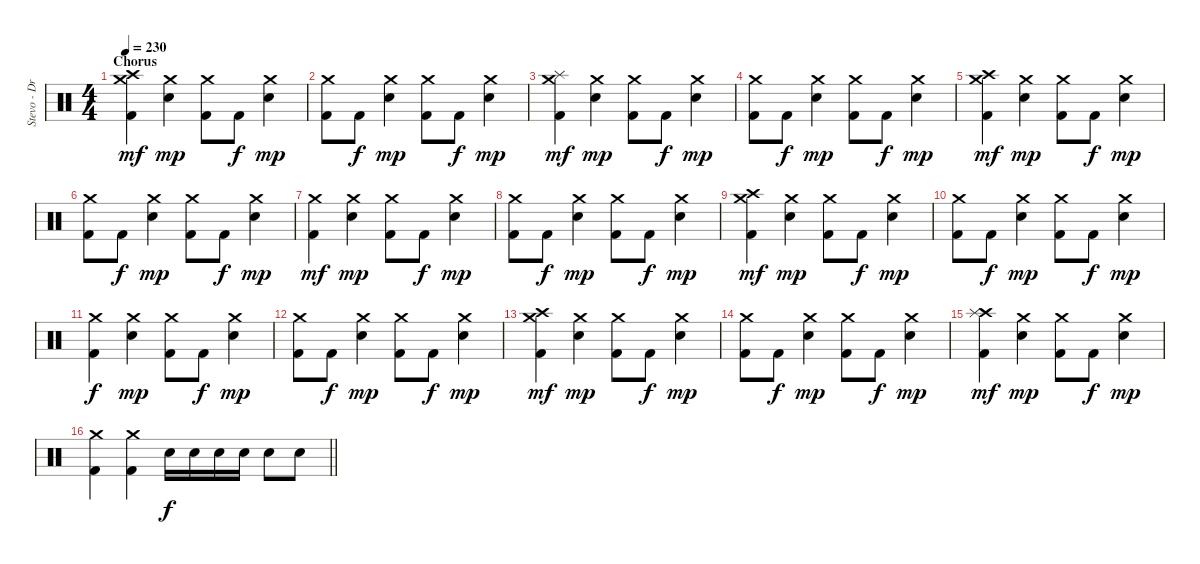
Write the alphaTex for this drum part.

\track ("Stevo - Drums" "Stevo - Dr") {instrument percussion}
\staff {score}
\articulation defaults
\ts (4 4)
\section ("" "Chorus")
\tempo 230
\clef neutral
\ks c
("Crash high (hit)" "Crash medium (hit)" "Kick (hit) 2").4{dy mf} ("Crash medium (hit)" "Electric Snare (hit)").4{dy mp} ("Crash medium (hit)" "Kick (hit) 2").8 "Kick (hit) 2".8{dy f} ("Crash medium (hit)" "Electric Snare (hit)").4{dy mp} |
("Crash medium (hit)" "Kick (hit) 2").8 "Kick (hit) 2".8{dy f} ("Crash medium (hit)" "Electric Snare (hit)").4{dy mp} ("Crash medium (hit)" "Kick (hit) 2").8 "Kick (hit) 2".8{dy f} ("Crash medium (hit)" "Electric Snare (hit)").4{dy mp} |
("Crash medium (hit)" "Splash (hit)" "Kick (hit) 2").4{dy mf} ("Crash medium (hit)" "Electric Snare (hit)").4{dy mp} ("Crash medium (hit)" "Kick (hit) 2").8 "Kick (hit) 2".8{dy f} ("Crash medium (hit)" "Electric Snare (hit)").4{dy mp} |
("Crash medium (hit)" "Kick (hit) 2").8 "Kick (hit) 2".8{dy f} ("Crash medium (hit)" "Electric Snare (hit)").4{dy mp} ("Crash medium (hit)" "Kick (hit) 2").8 "Kick (hit) 2".8{dy f} ("Crash medium (hit)" "Electric Snare (hit)").4{dy mp} |
("Crash high (hit)" "Crash medium (hit)" "Kick (hit) 2").4{dy mf} ("Crash medium (hit)" "Electric Snare (hit)").4{dy mp} ("Crash medium (hit)" "Kick (hit) 2").8 "Kick (hit) 2".8{dy f} ("Crash medium (hit)" "Electric Snare (hit)").4{dy mp} |
("Crash medium (hit)" "Kick (hit) 2").8 "Kick (hit) 2".8{dy f} ("Crash medium (hit)" "Electric Snare (hit)").4{dy mp} ("Crash medium (hit)" "Kick (hit) 2").8 "Kick (hit) 2".8{dy f} ("Crash medium (hit)" "Electric Snare (hit)").4{dy mp} |
("Crash medium (hit)" "Kick (hit) 2").4{dy mf} ("Crash medium (hit)" "Electric Snare (hit)").4{dy mp} ("Crash medium (hit)" "Kick (hit) 2").8 "Kick (hit) 2".8{dy f} ("Crash medium (hit)" "Electric Snare (hit)").4{dy mp} |
("Crash medium (hit)" "Kick (hit) 2").8 "Kick (hit) 2".8{dy f} ("Crash medium (hit)" "Electric Snare (hit)").4{dy mp} ("Crash medium (hit)" "Kick (hit) 2").8 "Kick (hit) 2".8{dy f} ("Crash medium (hit)" "Electric Snare (hit)").4{dy mp} |
("Crash high (hit)" "Crash medium (hit)" "Kick (hit) 2").4{dy mf} ("Crash medium (hit)" "Electric Snare (hit)").4{dy mp} ("Crash medium (hit)" "Kick (hit) 2").8 "Kick (hit) 2".8{dy f} ("Crash medium (hit)" "Electric Snare (hit)").4{dy mp} |
("Crash medium (hit)" "Kick (hit) 2").8 "Kick (hit) 2".8{dy f} ("Crash medium (hit)" "Electric Snare (hit)").4{dy mp} ("Crash medium (hit)" "Kick (hit) 2").8 "Kick (hit) 2".8{dy f} ("Crash medium (hit)" "Electric Snare (hit)").4{dy mp} |
("Crash medium (hit)" "Kick (hit) 2").4{dy f} ("Crash medium (hit)" "Electric Snare (hit)").4{dy mp} ("Crash medium (hit)" "Kick (hit) 2").8 "Kick (hit) 2".8{dy f} ("Crash medium (hit)" "Electric Snare (hit)").4{dy mp} |
("Crash medium (hit)" "Kick (hit) 2").8 "Kick (hit) 2".8{dy f} ("Crash medium (hit)" "Electric Snare (hit)").4{dy mp} ("Crash medium (hit)" "Kick (hit) 2").8 "Kick (hit) 2".8{dy f} ("Crash medium (hit)" "Electric Snare (hit)").4{dy mp} |
("Crash high (hit)" "Crash medium (hit)" "Kick (hit) 2").4{dy mf} ("Crash medium (hit)" "Electric Snare (hit)").4{dy mp} ("Crash medium (hit)" "Kick (hit) 2").8 "Kick (hit) 2".8{dy f} ("Crash medium (hit)" "Electric Snare (hit)").4{dy mp} |
("Crash medium (hit)" "Kick (hit) 2").8 "Kick (hit) 2".8{dy f} ("Crash medium (hit)" "Electric Snare (hit)").4{dy mp} ("Crash medium (hit)" "Kick (hit) 2").8 "Kick (hit) 2".8{dy f} ("Crash medium (hit)" "Electric Snare (hit)").4{dy mp} |
("Crash high (hit)" "Splash (hit)" "Kick (hit) 2").4{dy mf} ("Crash medium (hit)" "Electric Snare (hit)").4{dy mp} ("Crash medium (hit)" "Kick (hit) 2").8 "Kick (hit) 2".8{dy f} ("Crash medium (hit)" "Electric Snare (hit)").4{dy mp} |
\barLineRight lightlight
("Crash medium (hit)" "Kick (hit) 2").4 ("Crash medium (hit)" "Kick (hit) 2").4 "Electric Snare (hit)".16{dy f} "Electric Snare (hit)".16 "Electric Snare (hit)".16 "Electric Snare (hit)".16 "Electric Snare (hit)".8 "Electric Snare (hit)".8
